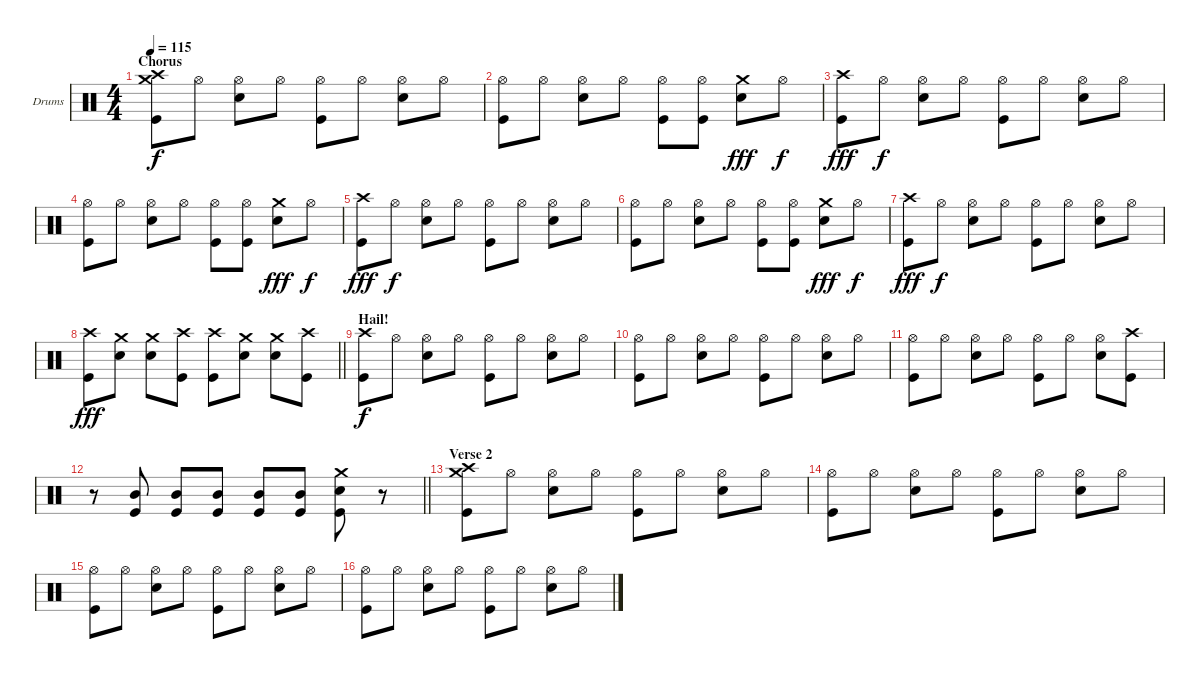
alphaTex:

\bracketExtendMode groupsimilarinstruments
\firstSystemTrackNameOrientation horizontal
\otherSystemsTrackNameOrientation horizontal
\track ("Drumkit" "Drums") {instrument percussion}
\staff {score}
\articulation defaults
\ts (4 4)
\section ("" "Chorus")
\tempo 115
\clef neutral
\ks c
("Crash medium (hit)" "Crash high (hit)" "Kick (hit)").8{dy f} "Hi-Hat (open)".8 ("Hi-Hat (open)" "Snare (hit) 2").8 "Hi-Hat (open)".8 ("Hi-Hat (open)" "Kick (hit)").8 "Hi-Hat (open)".8 ("Hi-Hat (open)" "Snare (hit) 2").8 "Hi-Hat (open)".8 |
("Hi-Hat (open)" "Kick (hit)").8 "Hi-Hat (open)".8 ("Hi-Hat (open)" "Snare (hit) 2").8 "Hi-Hat (open)".8 ("Hi-Hat (open)" "Kick (hit)").8 ("Hi-Hat (open)" "Kick (hit)").8 ("Crash medium (hit)" "Snare (hit) 2").8{dy fff} "Hi-Hat (open)".8{dy f} |
("Crash high (hit)" "Kick (hit)").8{dy fff} "Hi-Hat (open)".8{dy f} ("Hi-Hat (open)" "Snare (hit) 2").8 "Hi-Hat (open)".8 ("Hi-Hat (open)" "Kick (hit)").8 "Hi-Hat (open)".8 ("Hi-Hat (open)" "Snare (hit) 2").8 "Hi-Hat (open)".8 |
("Hi-Hat (open)" "Kick (hit)").8 "Hi-Hat (open)".8 ("Hi-Hat (open)" "Snare (hit) 2").8 "Hi-Hat (open)".8 ("Hi-Hat (open)" "Kick (hit)").8 ("Hi-Hat (open)" "Kick (hit)").8 ("Crash medium (hit)" "Snare (hit) 2").8{dy fff} "Hi-Hat (open)".8{dy f} |
("Crash high (hit)" "Kick (hit)").8{dy fff} "Hi-Hat (open)".8{dy f} ("Hi-Hat (open)" "Snare (hit) 2").8 "Hi-Hat (open)".8 ("Hi-Hat (open)" "Kick (hit)").8 "Hi-Hat (open)".8 ("Hi-Hat (open)" "Snare (hit) 2").8 "Hi-Hat (open)".8 |
("Hi-Hat (open)" "Kick (hit)").8 "Hi-Hat (open)".8 ("Hi-Hat (open)" "Snare (hit) 2").8 "Hi-Hat (open)".8 ("Hi-Hat (open)" "Kick (hit)").8 ("Hi-Hat (open)" "Kick (hit)").8 ("Crash medium (hit)" "Snare (hit) 2").8{dy fff} "Hi-Hat (open)".8{dy f} |
("Crash high (hit)" "Kick (hit)").8{dy fff} "Hi-Hat (open)".8{dy f} ("Hi-Hat (open)" "Snare (hit) 2").8 "Hi-Hat (open)".8 ("Hi-Hat (open)" "Kick (hit)").8 "Hi-Hat (open)".8 ("Hi-Hat (open)" "Snare (hit) 2").8 "Hi-Hat (open)".8 |
\barLineRight lightlight
("Crash high (hit)" "Kick (hit)").8{dy fff} ("Crash medium (hit)" "Snare (hit) 2").8 ("Crash medium (hit)" "Snare (hit) 2").8 ("Crash high (hit)" "Kick (hit)").8 ("Crash high (hit)" "Kick (hit)").8 ("Crash medium (hit)" "Snare (hit) 2").8 ("Crash medium (hit)" "Snare (hit) 2").8 ("Crash high (hit)" "Kick (hit)").8 |
\section ("" "Hail!")
("Crash high (hit)" "Kick (hit)").8{dy f} "Hi-Hat (open)".8 ("Hi-Hat (open)" "Snare (hit) 2").8 "Hi-Hat (open)".8 ("Hi-Hat (open)" "Kick (hit)").8 "Hi-Hat (open)".8 ("Hi-Hat (open)" "Snare (hit) 2").8 "Hi-Hat (open)".8 |
("Hi-Hat (open)" "Kick (hit)").8 "Hi-Hat (open)".8 ("Hi-Hat (open)" "Snare (hit) 2").8 "Hi-Hat (open)".8 ("Hi-Hat (open)" "Kick (hit)").8 "Hi-Hat (open)".8 ("Hi-Hat (open)" "Snare (hit) 2").8 "Hi-Hat (open)".8 |
("Hi-Hat (open)" "Kick (hit)").8 "Hi-Hat (open)".8 ("Hi-Hat (open)" "Snare (hit) 2").8 "Hi-Hat (open)".8 ("Hi-Hat (open)" "Kick (hit)").8 "Hi-Hat (open)".8 ("Hi-Hat (open)" "Snare (hit) 2").8 ("Crash high (hit)" "Kick (hit)").8 |
\barLineRight lightlight
r.8 ("Kick (hit)" "Mid Tom (hit)").8 ("Kick (hit)" "Mid Tom (hit)").8 ("Kick (hit)" "Mid Tom (hit)").8 ("Kick (hit)" "Mid Tom (hit)").8 ("Kick (hit)" "Mid Tom (hit)").8 ("Crash medium (hit)" "Kick (hit)" "Snare (hit) 2").8 r.8 |
\section ("" "Verse 2")
("Crash medium (hit)" "Crash high (hit)" "Kick (hit)").8 "Hi-Hat (open)".8 ("Hi-Hat (open)" "Snare (hit) 2").8 "Hi-Hat (open)".8 ("Hi-Hat (open)" "Kick (hit)").8 "Hi-Hat (open)".8 ("Hi-Hat (open)" "Snare (hit) 2").8 "Hi-Hat (open)".8 |
("Hi-Hat (open)" "Kick (hit)").8 "Hi-Hat (open)".8 ("Hi-Hat (open)" "Snare (hit) 2").8 "Hi-Hat (open)".8 ("Hi-Hat (open)" "Kick (hit)").8 "Hi-Hat (open)".8 ("Hi-Hat (open)" "Snare (hit) 2").8 "Hi-Hat (open)".8 |
("Hi-Hat (open)" "Kick (hit)").8 "Hi-Hat (open)".8 ("Hi-Hat (open)" "Snare (hit) 2").8 "Hi-Hat (open)".8 ("Hi-Hat (open)" "Kick (hit)").8 "Hi-Hat (open)".8 ("Hi-Hat (open)" "Snare (hit) 2").8 "Hi-Hat (open)".8 |
("Hi-Hat (open)" "Kick (hit)").8 "Hi-Hat (open)".8 ("Hi-Hat (open)" "Snare (hit) 2").8 "Hi-Hat (open)".8 ("Hi-Hat (open)" "Kick (hit)").8 "Hi-Hat (open)".8 ("Hi-Hat (open)" "Snare (hit) 2").8 "Hi-Hat (open)".8
